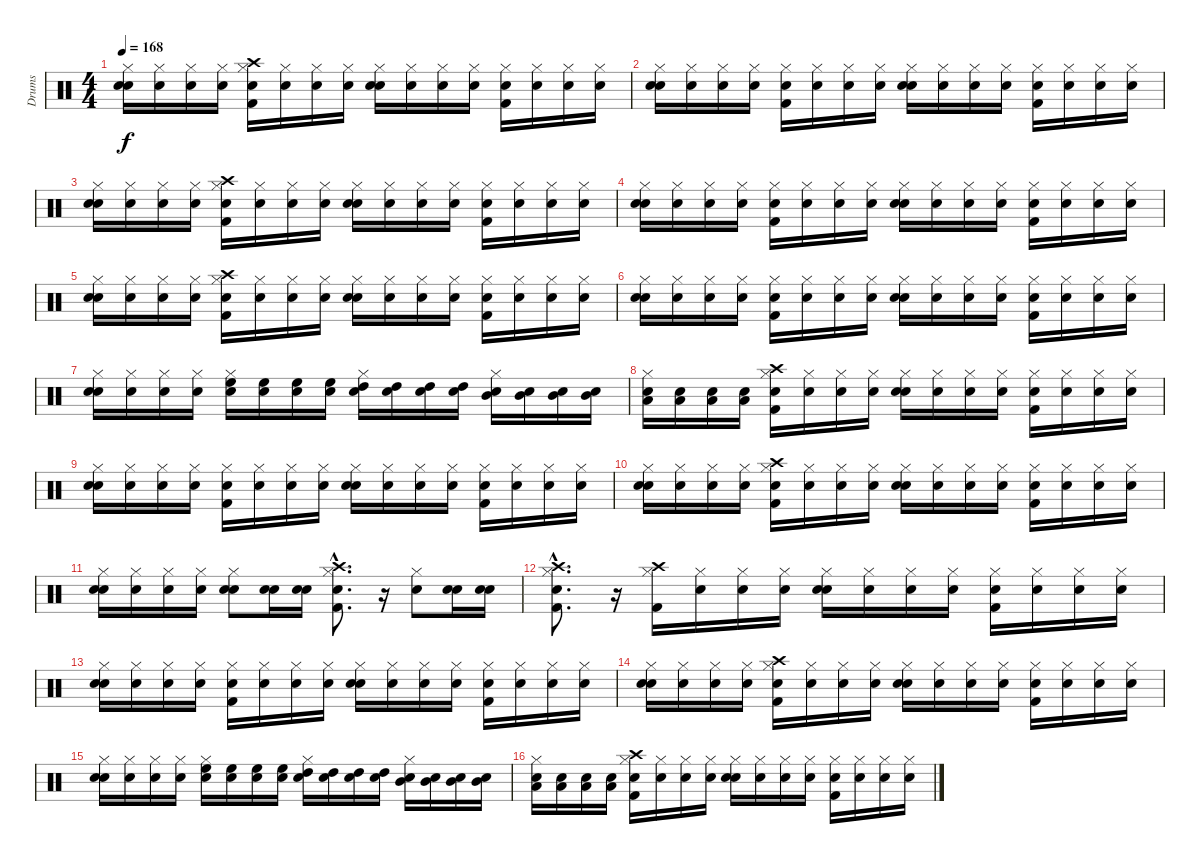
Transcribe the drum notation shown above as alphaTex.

\track ("Drums" "Drums") {instrument percussion}
\staff {score}
\articulation defaults
\ts (4 4)
\tempo 168
\clef neutral
\ks c
("Snare (hit)" "Snare (hit) 2" "Hi-Hat (closed)").16{dy f} ("Snare (hit)" "Hi-Hat (closed)").16 ("Snare (hit)" "Hi-Hat (closed)").16 ("Snare (hit)" "Hi-Hat (closed)").16 ("Snare (hit)" "Kick (hit) 2" "Hi-Hat (closed)" "Crash high (hit)").16 ("Snare (hit)" "Hi-Hat (closed)").16 ("Snare (hit)" "Hi-Hat (closed)").16 ("Snare (hit)" "Hi-Hat (closed)").16 ("Snare (hit)" "Snare (hit) 2" "Hi-Hat (closed)").16 ("Snare (hit)" "Hi-Hat (closed)").16 ("Snare (hit)" "Hi-Hat (closed)").16 ("Snare (hit)" "Hi-Hat (closed)").16 ("Snare (hit)" "Kick (hit) 2" "Hi-Hat (closed)").16 ("Snare (hit)" "Hi-Hat (closed)").16 ("Snare (hit)" "Hi-Hat (closed)").16 ("Snare (hit)" "Hi-Hat (closed)").16 |
("Snare (hit)" "Snare (hit) 2" "Hi-Hat (closed)").16 ("Snare (hit)" "Hi-Hat (closed)").16 ("Snare (hit)" "Hi-Hat (closed)").16 ("Snare (hit)" "Hi-Hat (closed)").16 ("Snare (hit)" "Kick (hit) 2" "Hi-Hat (closed)").16 ("Snare (hit)" "Hi-Hat (closed)").16 ("Snare (hit)" "Hi-Hat (closed)").16 ("Snare (hit)" "Hi-Hat (closed)").16 ("Snare (hit)" "Snare (hit) 2" "Hi-Hat (closed)").16 ("Snare (hit)" "Hi-Hat (closed)").16 ("Snare (hit)" "Hi-Hat (closed)").16 ("Snare (hit)" "Hi-Hat (closed)").16 ("Snare (hit)" "Kick (hit) 2" "Hi-Hat (closed)").16 ("Snare (hit)" "Hi-Hat (closed)").16 ("Snare (hit)" "Hi-Hat (closed)").16 ("Snare (hit)" "Hi-Hat (closed)").16 |
("Snare (hit)" "Snare (hit) 2" "Hi-Hat (closed)").16 ("Snare (hit)" "Hi-Hat (closed)").16 ("Snare (hit)" "Hi-Hat (closed)").16 ("Snare (hit)" "Hi-Hat (closed)").16 ("Snare (hit)" "Kick (hit) 2" "Hi-Hat (closed)" "Crash high (hit)").16 ("Snare (hit)" "Hi-Hat (closed)").16 ("Snare (hit)" "Hi-Hat (closed)").16 ("Snare (hit)" "Hi-Hat (closed)").16 ("Snare (hit)" "Snare (hit) 2" "Hi-Hat (closed)").16 ("Snare (hit)" "Hi-Hat (closed)").16 ("Snare (hit)" "Hi-Hat (closed)").16 ("Snare (hit)" "Hi-Hat (closed)").16 ("Snare (hit)" "Kick (hit) 2" "Hi-Hat (closed)").16 ("Snare (hit)" "Hi-Hat (closed)").16 ("Snare (hit)" "Hi-Hat (closed)").16 ("Snare (hit)" "Hi-Hat (closed)").16 |
("Snare (hit)" "Snare (hit) 2" "Hi-Hat (closed)").16 ("Snare (hit)" "Hi-Hat (closed)").16 ("Snare (hit)" "Hi-Hat (closed)").16 ("Snare (hit)" "Hi-Hat (closed)").16 ("Snare (hit)" "Kick (hit) 2" "Hi-Hat (closed)").16 ("Snare (hit)" "Hi-Hat (closed)").16 ("Snare (hit)" "Hi-Hat (closed)").16 ("Snare (hit)" "Hi-Hat (closed)").16 ("Snare (hit)" "Snare (hit) 2" "Hi-Hat (closed)").16 ("Snare (hit)" "Hi-Hat (closed)").16 ("Snare (hit)" "Hi-Hat (closed)").16 ("Snare (hit)" "Hi-Hat (closed)").16 ("Snare (hit)" "Kick (hit) 2" "Hi-Hat (closed)").16 ("Snare (hit)" "Hi-Hat (closed)").16 ("Snare (hit)" "Hi-Hat (closed)").16 ("Snare (hit)" "Hi-Hat (closed)").16 |
("Snare (hit)" "Snare (hit) 2" "Hi-Hat (closed)").16 ("Snare (hit)" "Hi-Hat (closed)").16 ("Snare (hit)" "Hi-Hat (closed)").16 ("Snare (hit)" "Hi-Hat (closed)").16 ("Snare (hit)" "Kick (hit) 2" "Hi-Hat (closed)" "Crash high (hit)").16 ("Snare (hit)" "Hi-Hat (closed)").16 ("Snare (hit)" "Hi-Hat (closed)").16 ("Snare (hit)" "Hi-Hat (closed)").16 ("Snare (hit)" "Snare (hit) 2" "Hi-Hat (closed)").16 ("Snare (hit)" "Hi-Hat (closed)").16 ("Snare (hit)" "Hi-Hat (closed)").16 ("Snare (hit)" "Hi-Hat (closed)").16 ("Snare (hit)" "Kick (hit) 2" "Hi-Hat (closed)").16 ("Snare (hit)" "Hi-Hat (closed)").16 ("Snare (hit)" "Hi-Hat (closed)").16 ("Snare (hit)" "Hi-Hat (closed)").16 |
("Snare (hit)" "Snare (hit) 2" "Hi-Hat (closed)").16 ("Snare (hit)" "Hi-Hat (closed)").16 ("Snare (hit)" "Hi-Hat (closed)").16 ("Snare (hit)" "Hi-Hat (closed)").16 ("Snare (hit)" "Kick (hit) 2" "Hi-Hat (closed)").16 ("Snare (hit)" "Hi-Hat (closed)").16 ("Snare (hit)" "Hi-Hat (closed)").16 ("Snare (hit)" "Hi-Hat (closed)").16 ("Snare (hit)" "Snare (hit) 2" "Hi-Hat (closed)").16 ("Snare (hit)" "Hi-Hat (closed)").16 ("Snare (hit)" "Hi-Hat (closed)").16 ("Snare (hit)" "Hi-Hat (closed)").16 ("Snare (hit)" "Kick (hit) 2" "Hi-Hat (closed)").16 ("Snare (hit)" "Hi-Hat (closed)").16 ("Snare (hit)" "Hi-Hat (closed)").16 ("Snare (hit)" "Hi-Hat (closed)").16 |
("Snare (hit)" "Snare (hit) 2" "Hi-Hat (closed)").16 ("Snare (hit)" "Hi-Hat (closed)").16 ("Snare (hit)" "Hi-Hat (closed)").16 ("Snare (hit)" "Hi-Hat (closed)").16 ("Snare (hit)" "Hi-Hat (closed)" "High Floor Tom (hit)").16 ("Snare (hit)" "High Floor Tom (hit)").16 ("Snare (hit)" "High Floor Tom (hit)").16 ("Snare (hit)" "High Floor Tom (hit)").16 ("Snare (hit)" "Hi-Hat (closed)" "High Tom (hit)").16 ("Snare (hit)" "High Tom (hit)").16 ("Snare (hit)" "High Tom (hit)").16 ("Snare (hit)" "High Tom (hit)").16 ("Snare (hit)" "Hi-Hat (closed)" "Mid Tom (hit)").16 ("Snare (hit)" "Mid Tom (hit)").16 ("Snare (hit)" "Mid Tom (hit)").16 ("Snare (hit)" "Mid Tom (hit)").16 |
("Snare (hit)" "Hi-Hat (closed)" "Low Tom (hit)").16 ("Snare (hit)" "Low Tom (hit)").16 ("Snare (hit)" "Low Tom (hit)").16 ("Snare (hit)" "Low Tom (hit)").16 ("Snare (hit)" "Kick (hit) 2" "Hi-Hat (closed)" "Crash high (hit)").16 ("Snare (hit)" "Hi-Hat (closed)").16 ("Snare (hit)" "Hi-Hat (closed)").16 ("Snare (hit)" "Hi-Hat (closed)").16 ("Snare (hit)" "Snare (hit) 2" "Hi-Hat (closed)").16 ("Snare (hit)" "Hi-Hat (closed)").16 ("Snare (hit)" "Hi-Hat (closed)").16 ("Snare (hit)" "Hi-Hat (closed)").16 ("Snare (hit)" "Kick (hit) 2" "Hi-Hat (closed)").16 ("Snare (hit)" "Hi-Hat (closed)").16 ("Snare (hit)" "Hi-Hat (closed)").16 ("Snare (hit)" "Hi-Hat (closed)").16 |
("Snare (hit)" "Snare (hit) 2" "Hi-Hat (closed)").16 ("Snare (hit)" "Hi-Hat (closed)").16 ("Snare (hit)" "Hi-Hat (closed)").16 ("Snare (hit)" "Hi-Hat (closed)").16 ("Snare (hit)" "Kick (hit) 2" "Hi-Hat (closed)").16 ("Snare (hit)" "Hi-Hat (closed)").16 ("Snare (hit)" "Hi-Hat (closed)").16 ("Snare (hit)" "Hi-Hat (closed)").16 ("Snare (hit)" "Snare (hit) 2" "Hi-Hat (closed)").16 ("Snare (hit)" "Hi-Hat (closed)").16 ("Snare (hit)" "Hi-Hat (closed)").16 ("Snare (hit)" "Hi-Hat (closed)").16 ("Snare (hit)" "Kick (hit) 2" "Hi-Hat (closed)").16 ("Snare (hit)" "Hi-Hat (closed)").16 ("Snare (hit)" "Hi-Hat (closed)").16 ("Snare (hit)" "Hi-Hat (closed)").16 |
("Snare (hit)" "Snare (hit) 2" "Hi-Hat (closed)").16 ("Snare (hit)" "Hi-Hat (closed)").16 ("Snare (hit)" "Hi-Hat (closed)").16 ("Snare (hit)" "Hi-Hat (closed)").16 ("Snare (hit)" "Kick (hit) 2" "Hi-Hat (closed)" "Crash high (hit)").16 ("Snare (hit)" "Hi-Hat (closed)").16 ("Snare (hit)" "Hi-Hat (closed)").16 ("Snare (hit)" "Hi-Hat (closed)").16 ("Snare (hit)" "Snare (hit) 2" "Hi-Hat (closed)").16 ("Snare (hit)" "Hi-Hat (closed)").16 ("Snare (hit)" "Hi-Hat (closed)").16 ("Snare (hit)" "Hi-Hat (closed)").16 ("Snare (hit)" "Kick (hit) 2" "Hi-Hat (closed)").16 ("Snare (hit)" "Hi-Hat (closed)").16 ("Snare (hit)" "Hi-Hat (closed)").16 ("Snare (hit)" "Hi-Hat (closed)").16 |
("Snare (hit)" "Snare (hit) 2" "Hi-Hat (closed)").16 ("Snare (hit)" "Hi-Hat (closed)").16 ("Snare (hit)" "Hi-Hat (closed)").16 ("Snare (hit)" "Hi-Hat (closed)").16 ("Snare (hit)" "Snare (hit) 2" "Hi-Hat (closed)").8 ("Snare (hit)" "Snare (hit) 2").16 ("Snare (hit)" "Snare (hit) 2").16 ("Snare (hit)"{hac} "Kick (hit) 2"{hac} "Hi-Hat (closed)"{hac} "Crash high (hit)"{hac}).8{d} r.16 ("Snare (hit) 2" "Hi-Hat (closed)").8 ("Snare (hit)" "Snare (hit) 2").16 ("Snare (hit)" "Snare (hit) 2").16 |
("Snare (hit)"{hac} "Kick (hit) 2"{hac} "Hi-Hat (closed)"{hac} "Crash high (hit)"{hac}).8{d} r.16 ("Kick (hit) 2" "Hi-Hat (closed)" "Crash high (hit)").16 ("Snare (hit)" "Hi-Hat (closed)").16 ("Snare (hit)" "Hi-Hat (closed)").16 ("Snare (hit)" "Hi-Hat (closed)").16 ("Snare (hit)" "Snare (hit) 2" "Hi-Hat (closed)").16 ("Snare (hit)" "Hi-Hat (closed)").16 ("Snare (hit)" "Hi-Hat (closed)").16 ("Snare (hit)" "Hi-Hat (closed)").16 ("Snare (hit)" "Kick (hit) 2" "Hi-Hat (closed)").16 ("Snare (hit)" "Hi-Hat (closed)").16 ("Snare (hit)" "Hi-Hat (closed)").16 ("Snare (hit)" "Hi-Hat (closed)").16 |
("Snare (hit)" "Snare (hit) 2" "Hi-Hat (closed)").16 ("Snare (hit)" "Hi-Hat (closed)").16 ("Snare (hit)" "Hi-Hat (closed)").16 ("Snare (hit)" "Hi-Hat (closed)").16 ("Snare (hit)" "Kick (hit) 2" "Hi-Hat (closed)").16 ("Snare (hit)" "Hi-Hat (closed)").16 ("Snare (hit)" "Hi-Hat (closed)").16 ("Snare (hit)" "Hi-Hat (closed)").16 ("Snare (hit)" "Snare (hit) 2" "Hi-Hat (closed)").16 ("Snare (hit)" "Hi-Hat (closed)").16 ("Snare (hit)" "Hi-Hat (closed)").16 ("Snare (hit)" "Hi-Hat (closed)").16 ("Snare (hit)" "Kick (hit) 2" "Hi-Hat (closed)").16 ("Snare (hit)" "Hi-Hat (closed)").16 ("Snare (hit)" "Hi-Hat (closed)").16 ("Snare (hit)" "Hi-Hat (closed)").16 |
("Snare (hit)" "Snare (hit) 2" "Hi-Hat (closed)").16 ("Snare (hit)" "Hi-Hat (closed)").16 ("Snare (hit)" "Hi-Hat (closed)").16 ("Snare (hit)" "Hi-Hat (closed)").16 ("Snare (hit)" "Kick (hit) 2" "Hi-Hat (closed)" "Crash high (hit)").16 ("Snare (hit)" "Hi-Hat (closed)").16 ("Snare (hit)" "Hi-Hat (closed)").16 ("Snare (hit)" "Hi-Hat (closed)").16 ("Snare (hit)" "Snare (hit) 2" "Hi-Hat (closed)").16 ("Snare (hit)" "Hi-Hat (closed)").16 ("Snare (hit)" "Hi-Hat (closed)").16 ("Snare (hit)" "Hi-Hat (closed)").16 ("Snare (hit)" "Kick (hit) 2" "Hi-Hat (closed)").16 ("Snare (hit)" "Hi-Hat (closed)").16 ("Snare (hit)" "Hi-Hat (closed)").16 ("Snare (hit)" "Hi-Hat (closed)").16 |
("Snare (hit)" "Snare (hit) 2" "Hi-Hat (closed)").16 ("Snare (hit)" "Hi-Hat (closed)").16 ("Snare (hit)" "Hi-Hat (closed)").16 ("Snare (hit)" "Hi-Hat (closed)").16 ("Snare (hit)" "Hi-Hat (closed)" "High Floor Tom (hit)").16 ("Snare (hit)" "High Floor Tom (hit)").16 ("Snare (hit)" "High Floor Tom (hit)").16 ("Snare (hit)" "High Floor Tom (hit)").16 ("Snare (hit)" "Hi-Hat (closed)" "High Tom (hit)").16 ("Snare (hit)" "High Tom (hit)").16 ("Snare (hit)" "High Tom (hit)").16 ("Snare (hit)" "High Tom (hit)").16 ("Snare (hit)" "Hi-Hat (closed)" "Mid Tom (hit)").16 ("Snare (hit)" "Mid Tom (hit)").16 ("Snare (hit)" "Mid Tom (hit)").16 ("Snare (hit)" "Mid Tom (hit)").16 |
("Snare (hit)" "Hi-Hat (closed)" "Low Tom (hit)").16 ("Snare (hit)" "Low Tom (hit)").16 ("Snare (hit)" "Low Tom (hit)").16 ("Snare (hit)" "Low Tom (hit)").16 ("Snare (hit)" "Kick (hit) 2" "Hi-Hat (closed)" "Crash high (hit)").16 ("Snare (hit)" "Hi-Hat (closed)").16 ("Snare (hit)" "Hi-Hat (closed)").16 ("Snare (hit)" "Hi-Hat (closed)").16 ("Snare (hit)" "Snare (hit) 2" "Hi-Hat (closed)").16 ("Snare (hit)" "Hi-Hat (closed)").16 ("Snare (hit)" "Hi-Hat (closed)").16 ("Snare (hit)" "Hi-Hat (closed)").16 ("Snare (hit)" "Kick (hit) 2" "Hi-Hat (closed)").16 ("Snare (hit)" "Hi-Hat (closed)").16 ("Snare (hit)" "Hi-Hat (closed)").16 ("Snare (hit)" "Hi-Hat (closed)").16
